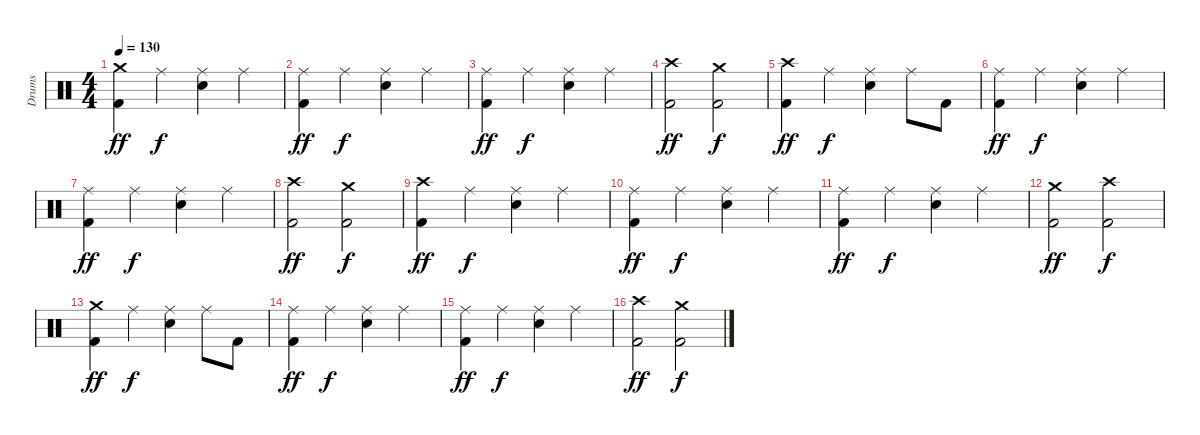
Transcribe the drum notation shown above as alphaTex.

\track ("Drums" "Drums") {instrument percussion}
\staff {score}
\articulation defaults
\ts (4 4)
\tempo 130
\clef neutral
\ks c
("Crash medium (hit)" "Kick (hit) 2").4{dy ff} "Ride (middle)".4{dy f} ("Ride (middle)" "Electric Snare (hit)").4 "Ride (middle)".4 |
("Ride (middle)" "Kick (hit) 2").4{dy ff} "Ride (middle)".4{dy f} ("Ride (middle)" "Electric Snare (hit)").4 "Ride (middle)".4 |
("Ride (middle)" "Kick (hit) 2").4{dy ff} "Ride (middle)".4{dy f} ("Ride (middle)" "Electric Snare (hit)").4 "Ride (middle)".4 |
("Crash high (hit)" "Kick (hit) 2").2{dy ff} ("Crash medium (hit)" "Kick (hit) 2").2{dy f} |
("Crash high (hit)" "Kick (hit) 2").4{dy ff} "Ride (middle)".4{dy f} ("Ride (middle)" "Electric Snare (hit)").4 "Ride (middle)".8 "Kick (hit) 2".8 |
("Ride (middle)" "Kick (hit) 2").4{dy ff} "Ride (middle)".4{dy f} ("Ride (middle)" "Electric Snare (hit)").4 "Ride (middle)".4 |
("Ride (middle)" "Kick (hit) 2").4{dy ff} "Ride (middle)".4{dy f} ("Ride (middle)" "Electric Snare (hit)").4 "Ride (middle)".4 |
("Crash high (hit)" "Kick (hit) 2").2{dy ff} ("Crash medium (hit)" "Kick (hit) 2").2{dy f} |
("Crash high (hit)" "Kick (hit) 2").4{dy ff} "Ride (middle)".4{dy f} ("Ride (middle)" "Electric Snare (hit)").4 "Ride (middle)".4 |
("Ride (middle)" "Kick (hit) 2").4{dy ff} "Ride (middle)".4{dy f} ("Ride (middle)" "Electric Snare (hit)").4 "Ride (middle)".4 |
("Ride (middle)" "Kick (hit) 2").4{dy ff} "Ride (middle)".4{dy f} ("Ride (middle)" "Electric Snare (hit)").4 "Ride (middle)".4 |
("Crash medium (hit)" "Kick (hit) 2").2{dy ff} ("Crash high (hit)" "Kick (hit) 2").2{dy f} |
("Crash medium (hit)" "Kick (hit) 2").4{dy ff} "Ride (middle)".4{dy f} ("Ride (middle)" "Electric Snare (hit)").4 "Ride (middle)".8 "Kick (hit) 2".8 |
("Ride (middle)" "Kick (hit) 2").4{dy ff} "Ride (middle)".4{dy f} ("Ride (middle)" "Electric Snare (hit)").4 "Ride (middle)".4 |
("Ride (middle)" "Kick (hit) 2").4{dy ff} "Ride (middle)".4{dy f} ("Ride (middle)" "Electric Snare (hit)").4 "Ride (middle)".4 |
("Crash high (hit)" "Kick (hit) 2").2{dy ff} ("Crash medium (hit)" "Kick (hit) 2").2{dy f}
